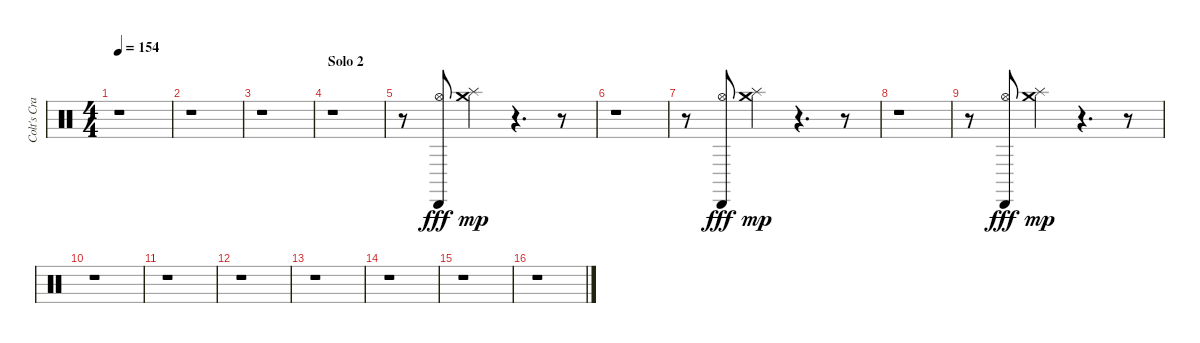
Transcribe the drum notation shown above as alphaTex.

\track ("Colt's Cracking Whip!" "Colt's Cra") {instrument percussion}
\staff {score}
\articulation defaults
\ts (4 4)
\tempo 154
\clef neutral
\ks c
r.1{dy mp} |
r.1 |
r.1 |
\section ("" "Solo 2")
r.1 |
r.8 ("Hi-Hat (open)" "Cabasa (hit)").8{dy fff} ("Crash medium (hit)" "Splash (hit)").4{dy mp} r.4{d} r.8 |
r.1 |
r.8 ("Hi-Hat (open)" "Cabasa (hit)").8{dy fff} ("Crash medium (hit)" "Splash (hit)").4{dy mp} r.4{d} r.8 |
r.1 |
r.8 ("Hi-Hat (open)" "Cabasa (hit)").8{dy fff} ("Crash medium (hit)" "Splash (hit)").4{dy mp} r.4{d} r.8 |
r.1 |
r.1 |
r.1 |
r.1 |
r.1 |
r.1 |
r.1
